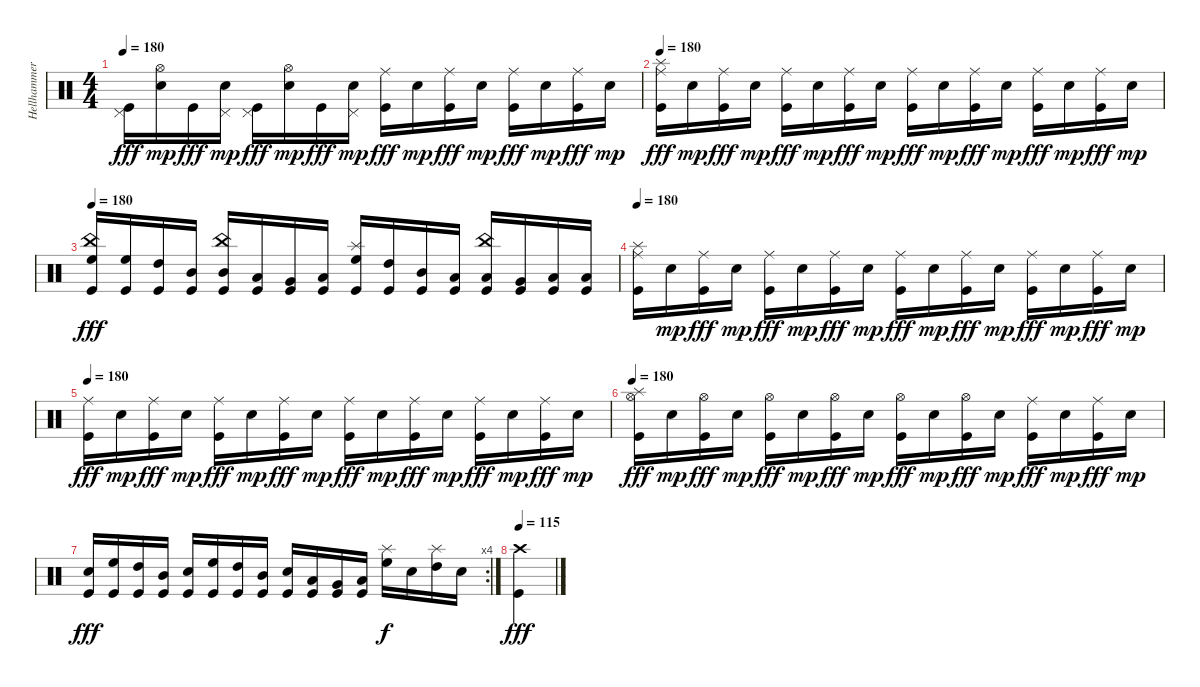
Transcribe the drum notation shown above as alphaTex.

\track ("Hellhammer" "Hellhammer") {instrument percussion}
\staff {score}
\articulation defaults
\ts (4 4)
\tempo 180
\clef neutral
\ks c
("Pedal Hi-Hat (hit)" "Kick (hit)").16{dy fff} ("Hi-Hat (open)" "Electric Snare (hit)").16{dy mp} "Kick (hit)".16{dy fff} ("Pedal Hi-Hat (hit)" "Electric Snare (hit)").16{dy mp} ("Pedal Hi-Hat (hit)" "Kick (hit)").16{dy fff} ("Hi-Hat (open)" "Electric Snare (hit)").16{dy mp} "Kick (hit)".16{dy fff} ("Pedal Hi-Hat (hit)" "Electric Snare (hit)").16{dy mp} ("Ride (middle)" "Kick (hit)").16{dy fff} "Electric Snare (hit)".16{dy mp} ("Ride (middle)" "Kick (hit)").16{dy fff} "Electric Snare (hit)".16{dy mp} ("Ride (middle)" "Kick (hit)").16{dy fff} "Electric Snare (hit)".16{dy mp} ("Ride (middle)" "Kick (hit)").16{dy fff} "Electric Snare (hit)".16{dy mp} |
\tempo 180
("Splash (hit)" "Ride (middle)" "Kick (hit)").16{dy fff} "Electric Snare (hit)".16{dy mp} ("Ride (middle)" "Kick (hit)").16{dy fff} "Electric Snare (hit)".16{dy mp} ("Ride (middle)" "Kick (hit)").16{dy fff} "Electric Snare (hit)".16{dy mp} ("Ride (middle)" "Kick (hit)").16{dy fff} "Electric Snare (hit)".16{dy mp} ("Ride (middle)" "Kick (hit)").16{dy fff} "Electric Snare (hit)".16{dy mp} ("Ride (middle)" "Kick (hit)").16{dy fff} "Electric Snare (hit)".16{dy mp} ("Ride (middle)" "Kick (hit)").16{dy fff} "Electric Snare (hit)".16{dy mp} ("Ride (middle)" "Kick (hit)").16{dy fff} "Electric Snare (hit)".16{dy mp} |
\tempo 180
("China (hit)" "High Floor Tom (hit)" "Kick (hit)").16{dy fff} ("High Floor Tom (hit)" "Kick (hit)").16 ("High Tom (hit)" "Kick (hit)").16 ("Mid Tom (hit)" "Kick (hit)").16 ("China (hit)" "Mid Tom (hit)" "Kick (hit)").16 ("Low Tom (hit)" "Kick (hit)").16 ("Very Low Tom (hit)" "Kick (hit)").16 ("Low Floor Tom (hit)" "Kick (hit)").16 ("Splash (hit)" "High Floor Tom (hit)" "Kick (hit)").16 ("High Tom (hit)" "Kick (hit)").16 ("Mid Tom (hit)" "Kick (hit)").16 ("Low Tom (hit)" "Kick (hit)").16 ("China (hit)" "Low Tom (hit)" "Kick (hit)").16 ("Very Low Tom (hit)" "Kick (hit)").16 ("Low Floor Tom (hit)" "Kick (hit)").16 ("Low Floor Tom (hit)" "Kick (hit)").16 |
\tempo 180
("Splash (hit)" "Ride (middle)" "Kick (hit)").16 "Electric Snare (hit)".16{dy mp} ("Ride (middle)" "Kick (hit)").16{dy fff} "Electric Snare (hit)".16{dy mp} ("Ride (middle)" "Kick (hit)").16{dy fff} "Electric Snare (hit)".16{dy mp} ("Ride (middle)" "Kick (hit)").16{dy fff} "Electric Snare (hit)".16{dy mp} ("Ride (middle)" "Kick (hit)").16{dy fff} "Electric Snare (hit)".16{dy mp} ("Ride (middle)" "Kick (hit)").16{dy fff} "Electric Snare (hit)".16{dy mp} ("Ride (middle)" "Kick (hit)").16{dy fff} "Electric Snare (hit)".16{dy mp} ("Ride (middle)" "Kick (hit)").16{dy fff} "Electric Snare (hit)".16{dy mp} |
\tempo 180
("Ride (middle)" "Kick (hit)").16{dy fff} "Electric Snare (hit)".16{dy mp} ("Ride (middle)" "Kick (hit)").16{dy fff} "Electric Snare (hit)".16{dy mp} ("Ride (middle)" "Kick (hit)").16{dy fff} "Electric Snare (hit)".16{dy mp} ("Ride (middle)" "Kick (hit)").16{dy fff} "Electric Snare (hit)".16{dy mp} ("Ride (middle)" "Kick (hit)").16{dy fff} "Electric Snare (hit)".16{dy mp} ("Ride (middle)" "Kick (hit)").16{dy fff} "Electric Snare (hit)".16{dy mp} ("Ride (middle)" "Kick (hit)").16{dy fff} "Electric Snare (hit)".16{dy mp} ("Ride (middle)" "Kick (hit)").16{dy fff} "Electric Snare (hit)".16{dy mp} |
\tempo 180
("Splash (hit)" "Hi-Hat (open)" "Kick (hit)").16{dy fff} "Electric Snare (hit)".16{dy mp} ("Hi-Hat (open)" "Kick (hit)").16{dy fff} "Electric Snare (hit)".16{dy mp} ("Hi-Hat (open)" "Kick (hit)").16{dy fff} "Electric Snare (hit)".16{dy mp} ("Hi-Hat (open)" "Kick (hit)").16{dy fff} "Electric Snare (hit)".16{dy mp} ("Hi-Hat (open)" "Kick (hit)").16{dy fff} "Electric Snare (hit)".16{dy mp} ("Hi-Hat (open)" "Kick (hit)").16{dy fff} "Electric Snare (hit)".16{dy mp} ("Ride (middle)" "Kick (hit)").16{dy fff} "Electric Snare (hit)".16{dy mp} ("Ride (middle)" "Kick (hit)").16{dy fff} "Electric Snare (hit)".16{dy mp} |
\rc 4
("Electric Snare (hit)" "Kick (hit)").16{dy fff} ("High Floor Tom (hit)" "Kick (hit)").16 ("High Tom (hit)" "Kick (hit)").16 ("Mid Tom (hit)" "Kick (hit)").16 ("Electric Snare (hit)" "Kick (hit)").16 ("High Floor Tom (hit)" "Kick (hit)").16 ("High Tom (hit)" "Kick (hit)").16 ("Mid Tom (hit)" "Kick (hit)").16 ("Electric Snare (hit)" "Kick (hit)").16 ("Low Tom (hit)" "Kick (hit)").16 ("Very Low Tom (hit)" "Kick (hit)").16 ("Low Floor Tom (hit)" "Kick (hit)").16 ("Splash (hit)" "High Floor Tom (hit)").16{dy f} "Electric Snare (hit)".16 ("Splash (hit)" "High Tom (hit)").16 "Electric Snare (hit)".16 |
\tempo 115
("Crash high (hit)" "Kick (hit)").4{dy fff}
